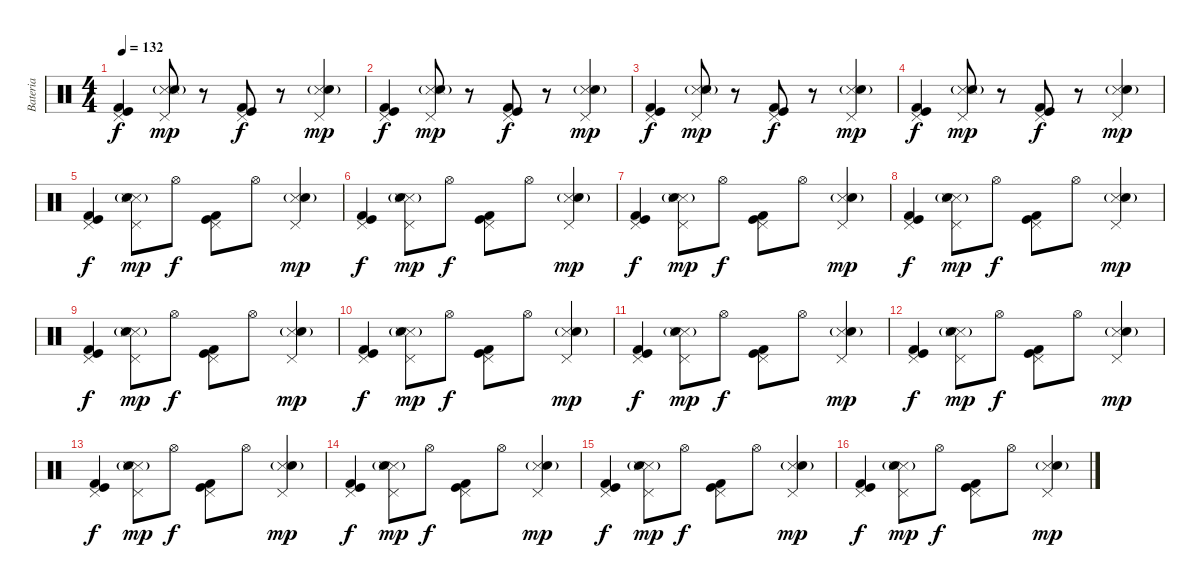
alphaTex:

\track ("Bateria" "Bateria") {instrument percussion}
\staff {score}
\articulation defaults
\ts (4 4)
\tempo 132
\clef neutral
\ks c
("Pedal Hi-Hat (hit)" "Kick (hit) 2" "Kick (hit)").4{dy f} ("Pedal Hi-Hat (hit)" "Snare (side stick) 3" "Snare (side stick) 3" "Electric Snare (hit)"{g}).8{dy mp} r.8 ("Pedal Hi-Hat (hit)" "Kick (hit) 2" "Kick (hit)").8{dy f} r.8 ("Pedal Hi-Hat (hit)" "Snare (side stick) 3" "Electric Snare (hit)"{g}).4{dy mp} |
("Pedal Hi-Hat (hit)" "Kick (hit) 2" "Kick (hit)").4{dy f} ("Pedal Hi-Hat (hit)" "Snare (side stick) 3" "Snare (side stick) 3" "Electric Snare (hit)"{g}).8{dy mp} r.8 ("Pedal Hi-Hat (hit)" "Kick (hit) 2" "Kick (hit)").8{dy f} r.8 ("Pedal Hi-Hat (hit)" "Snare (side stick) 3" "Electric Snare (hit)"{g}).4{dy mp} |
("Pedal Hi-Hat (hit)" "Kick (hit) 2" "Kick (hit)").4{dy f} ("Pedal Hi-Hat (hit)" "Snare (side stick) 3" "Snare (side stick) 3" "Electric Snare (hit)"{g}).8{dy mp} r.8 ("Pedal Hi-Hat (hit)" "Kick (hit) 2" "Kick (hit)").8{dy f} r.8 ("Pedal Hi-Hat (hit)" "Snare (side stick) 3" "Electric Snare (hit)"{g}).4{dy mp} |
("Pedal Hi-Hat (hit)" "Kick (hit) 2" "Kick (hit)").4{dy f} ("Pedal Hi-Hat (hit)" "Snare (side stick) 3" "Snare (side stick) 3" "Electric Snare (hit)"{g}).8{dy mp} r.8 ("Pedal Hi-Hat (hit)" "Kick (hit) 2" "Kick (hit)").8{dy f} r.8 ("Pedal Hi-Hat (hit)" "Snare (side stick) 3" "Electric Snare (hit)"{g}).4{dy mp} |
("Pedal Hi-Hat (hit)" "Kick (hit) 2" "Kick (hit)").4{dy f} ("Pedal Hi-Hat (hit)" "Snare (side stick) 3" "Snare (side stick) 3" "Electric Snare (hit)"{g}).8{dy mp} "Hi-Hat (open)".8{dy f} ("Pedal Hi-Hat (hit)" "Kick (hit) 2" "Kick (hit)").8 "Hi-Hat (open)".8 ("Pedal Hi-Hat (hit)" "Snare (side stick) 3" "Electric Snare (hit)"{g}).4{dy mp} |
("Pedal Hi-Hat (hit)" "Kick (hit) 2" "Kick (hit)").4{dy f} ("Pedal Hi-Hat (hit)" "Snare (side stick) 3" "Snare (side stick) 3" "Electric Snare (hit)"{g}).8{dy mp} "Hi-Hat (open)".8{dy f} ("Pedal Hi-Hat (hit)" "Kick (hit) 2" "Kick (hit)").8 "Hi-Hat (open)".8 ("Pedal Hi-Hat (hit)" "Snare (side stick) 3" "Electric Snare (hit)"{g}).4{dy mp} |
("Pedal Hi-Hat (hit)" "Kick (hit) 2" "Kick (hit)").4{dy f} ("Pedal Hi-Hat (hit)" "Snare (side stick) 3" "Snare (side stick) 3" "Electric Snare (hit)"{g}).8{dy mp} "Hi-Hat (open)".8{dy f} ("Pedal Hi-Hat (hit)" "Kick (hit) 2" "Kick (hit)").8 "Hi-Hat (open)".8 ("Pedal Hi-Hat (hit)" "Snare (side stick) 3" "Electric Snare (hit)"{g}).4{dy mp} |
("Pedal Hi-Hat (hit)" "Kick (hit) 2" "Kick (hit)").4{dy f} ("Pedal Hi-Hat (hit)" "Snare (side stick) 3" "Snare (side stick) 3" "Electric Snare (hit)"{g}).8{dy mp} "Hi-Hat (open)".8{dy f} ("Pedal Hi-Hat (hit)" "Kick (hit) 2" "Kick (hit)").8 "Hi-Hat (open)".8 ("Pedal Hi-Hat (hit)" "Snare (side stick) 3" "Electric Snare (hit)"{g}).4{dy mp} |
("Pedal Hi-Hat (hit)" "Kick (hit) 2" "Kick (hit)").4{dy f} ("Pedal Hi-Hat (hit)" "Snare (side stick) 3" "Snare (side stick) 3" "Electric Snare (hit)"{g}).8{dy mp} "Hi-Hat (open)".8{dy f} ("Pedal Hi-Hat (hit)" "Kick (hit) 2" "Kick (hit)").8 "Hi-Hat (open)".8 ("Pedal Hi-Hat (hit)" "Snare (side stick) 3" "Electric Snare (hit)"{g}).4{dy mp} |
("Pedal Hi-Hat (hit)" "Kick (hit) 2" "Kick (hit)").4{dy f} ("Pedal Hi-Hat (hit)" "Snare (side stick) 3" "Snare (side stick) 3" "Electric Snare (hit)"{g}).8{dy mp} "Hi-Hat (open)".8{dy f} ("Pedal Hi-Hat (hit)" "Kick (hit) 2" "Kick (hit)").8 "Hi-Hat (open)".8 ("Pedal Hi-Hat (hit)" "Snare (side stick) 3" "Electric Snare (hit)"{g}).4{dy mp} |
("Pedal Hi-Hat (hit)" "Kick (hit) 2" "Kick (hit)").4{dy f} ("Pedal Hi-Hat (hit)" "Snare (side stick) 3" "Snare (side stick) 3" "Electric Snare (hit)"{g}).8{dy mp} "Hi-Hat (open)".8{dy f} ("Pedal Hi-Hat (hit)" "Kick (hit) 2" "Kick (hit)").8 "Hi-Hat (open)".8 ("Pedal Hi-Hat (hit)" "Snare (side stick) 3" "Electric Snare (hit)"{g}).4{dy mp} |
("Pedal Hi-Hat (hit)" "Kick (hit) 2" "Kick (hit)").4{dy f} ("Pedal Hi-Hat (hit)" "Snare (side stick) 3" "Snare (side stick) 3" "Electric Snare (hit)"{g}).8{dy mp} "Hi-Hat (open)".8{dy f} ("Pedal Hi-Hat (hit)" "Kick (hit) 2" "Kick (hit)").8 "Hi-Hat (open)".8 ("Pedal Hi-Hat (hit)" "Snare (side stick) 3" "Electric Snare (hit)"{g}).4{dy mp} |
("Pedal Hi-Hat (hit)" "Kick (hit) 2" "Kick (hit)").4{dy f} ("Pedal Hi-Hat (hit)" "Snare (side stick) 3" "Snare (side stick) 3" "Electric Snare (hit)"{g}).8{dy mp} "Hi-Hat (open)".8{dy f} ("Pedal Hi-Hat (hit)" "Kick (hit) 2" "Kick (hit)").8 "Hi-Hat (open)".8 ("Pedal Hi-Hat (hit)" "Snare (side stick) 3" "Electric Snare (hit)"{g}).4{dy mp} |
("Pedal Hi-Hat (hit)" "Kick (hit) 2" "Kick (hit)").4{dy f} ("Pedal Hi-Hat (hit)" "Snare (side stick) 3" "Snare (side stick) 3" "Electric Snare (hit)"{g}).8{dy mp} "Hi-Hat (open)".8{dy f} ("Pedal Hi-Hat (hit)" "Kick (hit) 2" "Kick (hit)").8 "Hi-Hat (open)".8 ("Pedal Hi-Hat (hit)" "Snare (side stick) 3" "Electric Snare (hit)"{g}).4{dy mp} |
("Pedal Hi-Hat (hit)" "Kick (hit) 2" "Kick (hit)").4{dy f} ("Pedal Hi-Hat (hit)" "Snare (side stick) 3" "Snare (side stick) 3" "Electric Snare (hit)"{g}).8{dy mp} "Hi-Hat (open)".8{dy f} ("Pedal Hi-Hat (hit)" "Kick (hit) 2" "Kick (hit)").8 "Hi-Hat (open)".8 ("Pedal Hi-Hat (hit)" "Snare (side stick) 3" "Electric Snare (hit)"{g}).4{dy mp} |
("Pedal Hi-Hat (hit)" "Kick (hit) 2" "Kick (hit)").4{dy f} ("Pedal Hi-Hat (hit)" "Snare (side stick) 3" "Snare (side stick) 3" "Electric Snare (hit)"{g}).8{dy mp} "Hi-Hat (open)".8{dy f} ("Pedal Hi-Hat (hit)" "Kick (hit) 2" "Kick (hit)").8 "Hi-Hat (open)".8 ("Pedal Hi-Hat (hit)" "Snare (side stick) 3" "Electric Snare (hit)"{g}).4{dy mp}
